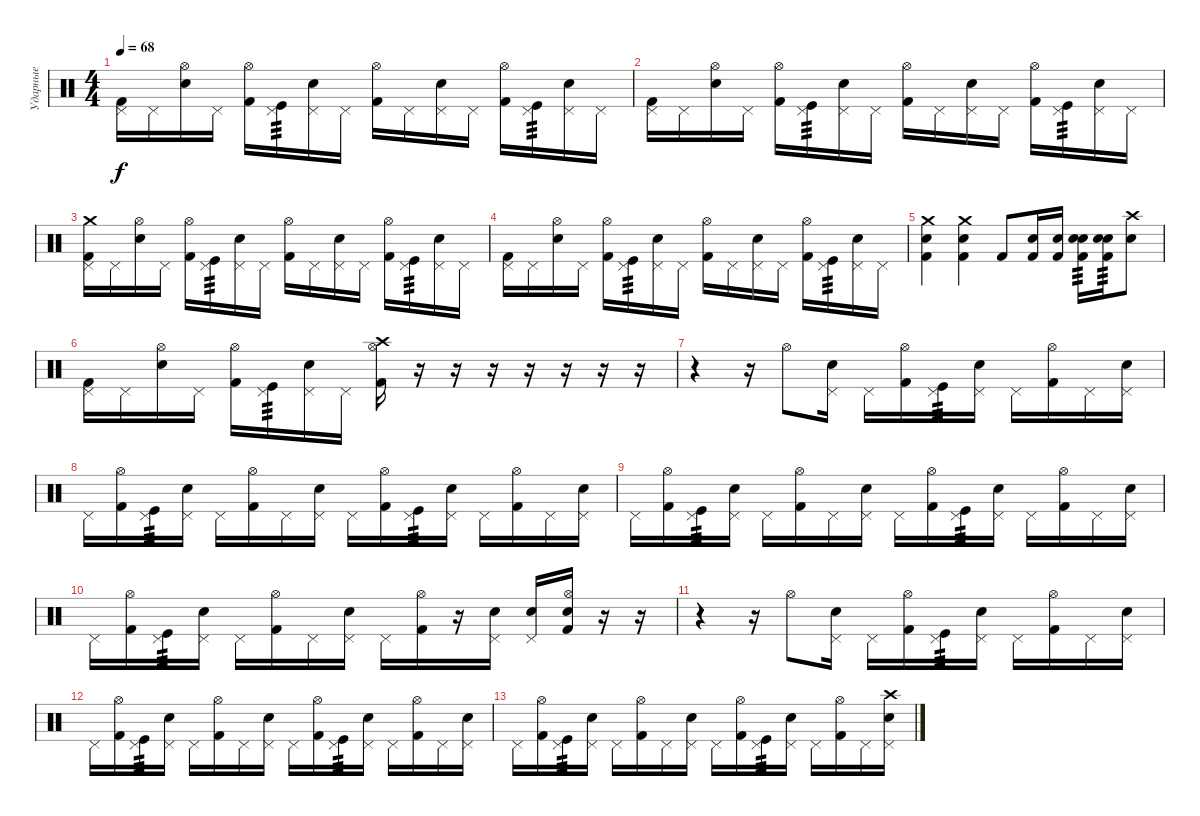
\track ("Ударные" "Ударные") {instrument percussion}
\staff {score}
\articulation defaults
\ts (4 4)
\tempo 68
\clef neutral
\ks c
("Pedal Hi-Hat (hit)" "Kick (hit) 2").16{dy f} "Pedal Hi-Hat (hit)".16 ("Hi-Hat (open)" "Snare (hit) 2").16 "Pedal Hi-Hat (hit)".16 ("Hi-Hat (open)" "Kick (hit) 2").16 ("Pedal Hi-Hat (hit)" "Kick (hit)").16{tp 3} ("Pedal Hi-Hat (hit)" "Snare (hit) 2").16 "Pedal Hi-Hat (hit)".16 ("Hi-Hat (open)" "Kick (hit) 2").16 "Pedal Hi-Hat (hit)".16 ("Pedal Hi-Hat (hit)" "Snare (hit) 2").16 "Pedal Hi-Hat (hit)".16 ("Hi-Hat (open)" "Kick (hit) 2").16 ("Pedal Hi-Hat (hit)" "Kick (hit)").16{tp 3} ("Pedal Hi-Hat (hit)" "Snare (hit) 2").16 "Pedal Hi-Hat (hit)".16 |
("Pedal Hi-Hat (hit)" "Kick (hit) 2").16 "Pedal Hi-Hat (hit)".16 ("Hi-Hat (open)" "Snare (hit) 2").16 "Pedal Hi-Hat (hit)".16 ("Hi-Hat (open)" "Kick (hit) 2").16 ("Pedal Hi-Hat (hit)" "Kick (hit)").16{tp 3} ("Pedal Hi-Hat (hit)" "Snare (hit) 2").16 "Pedal Hi-Hat (hit)".16 ("Hi-Hat (open)" "Kick (hit) 2").16 "Pedal Hi-Hat (hit)".16 ("Pedal Hi-Hat (hit)" "Snare (hit) 2").16 "Pedal Hi-Hat (hit)".16 ("Hi-Hat (open)" "Kick (hit) 2").16 ("Pedal Hi-Hat (hit)" "Kick (hit)").16{tp 3} ("Pedal Hi-Hat (hit)" "Snare (hit) 2").16 "Pedal Hi-Hat (hit)".16 |
("Crash medium (hit)" "Pedal Hi-Hat (hit)" "Kick (hit) 2").16 "Pedal Hi-Hat (hit)".16 ("Hi-Hat (open)" "Snare (hit) 2").16 "Pedal Hi-Hat (hit)".16 ("Hi-Hat (open)" "Kick (hit) 2").16 ("Pedal Hi-Hat (hit)" "Kick (hit)").16{tp 3} ("Pedal Hi-Hat (hit)" "Snare (hit) 2").16 "Pedal Hi-Hat (hit)".16 ("Hi-Hat (open)" "Kick (hit) 2").16 "Pedal Hi-Hat (hit)".16 ("Pedal Hi-Hat (hit)" "Snare (hit) 2").16 "Pedal Hi-Hat (hit)".16 ("Hi-Hat (open)" "Kick (hit) 2").16 ("Pedal Hi-Hat (hit)" "Kick (hit)").16{tp 3} ("Pedal Hi-Hat (hit)" "Snare (hit) 2").16 "Pedal Hi-Hat (hit)".16 |
("Pedal Hi-Hat (hit)" "Kick (hit) 2").16 "Pedal Hi-Hat (hit)".16 ("Hi-Hat (open)" "Snare (hit) 2").16 "Pedal Hi-Hat (hit)".16 ("Hi-Hat (open)" "Kick (hit) 2").16 ("Pedal Hi-Hat (hit)" "Kick (hit)").16{tp 3} ("Pedal Hi-Hat (hit)" "Snare (hit) 2").16 "Pedal Hi-Hat (hit)".16 ("Hi-Hat (open)" "Kick (hit) 2").16 "Pedal Hi-Hat (hit)".16 ("Pedal Hi-Hat (hit)" "Snare (hit) 2").16 "Pedal Hi-Hat (hit)".16 ("Hi-Hat (open)" "Kick (hit) 2").16 ("Pedal Hi-Hat (hit)" "Kick (hit)").16{tp 3} ("Pedal Hi-Hat (hit)" "Snare (hit) 2").16 "Pedal Hi-Hat (hit)".16 |
("Crash medium (hit)" "Snare (hit) 2" "Kick (hit) 2").4 ("Crash medium (hit)" "Snare (hit) 2" "Kick (hit) 2").4 "Kick (hit) 2".8 ("Snare (hit) 2" "Kick (hit) 2").16 ("Snare (hit) 2" "Kick (hit) 2").16 ("Electric Snare (hit)" "Snare (hit) 2" "Kick (hit) 2").16{tp 3} ("Electric Snare (hit)" "Snare (hit) 2" "Kick (hit) 2").16{tp 3} ("Crash high (hit)" "Snare (hit) 2").8 |
("Pedal Hi-Hat (hit)" "Kick (hit) 2").16 "Pedal Hi-Hat (hit)".16 ("Hi-Hat (open)" "Snare (hit) 2").16 "Pedal Hi-Hat (hit)".16 ("Hi-Hat (open)" "Kick (hit) 2").16 ("Pedal Hi-Hat (hit)" "Kick (hit)").16{tp 3} ("Pedal Hi-Hat (hit)" "Snare (hit) 2").16 "Pedal Hi-Hat (hit)".16 ("Crash high (hit)" "Hi-Hat (open)" "Kick (hit) 2").16 r.16 r.16 r.16 r.16 r.16 r.16 r.16 |
r.4 r.16 "Hi-Hat (open)".8 ("Pedal Hi-Hat (hit)" "Snare (hit) 2").16 "Pedal Hi-Hat (hit)".16 ("Hi-Hat (open)" "Kick (hit) 2").16 ("Pedal Hi-Hat (hit)" "Kick (hit)").16{tp 3} ("Pedal Hi-Hat (hit)" "Snare (hit) 2").16 "Pedal Hi-Hat (hit)".16 ("Hi-Hat (open)" "Kick (hit) 2").16 "Pedal Hi-Hat (hit)".16 ("Pedal Hi-Hat (hit)" "Snare (hit) 2").16 |
"Pedal Hi-Hat (hit)".16 ("Hi-Hat (open)" "Kick (hit) 2").16 ("Pedal Hi-Hat (hit)" "Kick (hit)").16{tp 3} ("Pedal Hi-Hat (hit)" "Snare (hit) 2").16 "Pedal Hi-Hat (hit)".16 ("Hi-Hat (open)" "Kick (hit) 2").16 "Pedal Hi-Hat (hit)".16 ("Pedal Hi-Hat (hit)" "Snare (hit) 2").16 "Pedal Hi-Hat (hit)".16 ("Hi-Hat (open)" "Kick (hit) 2").16 ("Pedal Hi-Hat (hit)" "Kick (hit)").16{tp 3} ("Pedal Hi-Hat (hit)" "Snare (hit) 2").16 "Pedal Hi-Hat (hit)".16 ("Hi-Hat (open)" "Kick (hit) 2").16 "Pedal Hi-Hat (hit)".16 ("Pedal Hi-Hat (hit)" "Snare (hit) 2").16 |
"Pedal Hi-Hat (hit)".16 ("Hi-Hat (open)" "Kick (hit) 2").16 ("Pedal Hi-Hat (hit)" "Kick (hit)").16{tp 3} ("Pedal Hi-Hat (hit)" "Snare (hit) 2").16 "Pedal Hi-Hat (hit)".16 ("Hi-Hat (open)" "Kick (hit) 2").16 "Pedal Hi-Hat (hit)".16 ("Pedal Hi-Hat (hit)" "Snare (hit) 2").16 "Pedal Hi-Hat (hit)".16 ("Hi-Hat (open)" "Kick (hit) 2").16 ("Pedal Hi-Hat (hit)" "Kick (hit)").16{tp 3} ("Pedal Hi-Hat (hit)" "Snare (hit) 2").16 "Pedal Hi-Hat (hit)".16 ("Hi-Hat (open)" "Kick (hit) 2").16 "Pedal Hi-Hat (hit)".16 ("Pedal Hi-Hat (hit)" "Snare (hit) 2").16 |
"Pedal Hi-Hat (hit)".16 ("Hi-Hat (open)" "Kick (hit) 2").16 ("Pedal Hi-Hat (hit)" "Kick (hit)").16{tp 3} ("Pedal Hi-Hat (hit)" "Snare (hit) 2").16 "Pedal Hi-Hat (hit)".16 ("Hi-Hat (open)" "Kick (hit) 2").16 "Pedal Hi-Hat (hit)".16 ("Pedal Hi-Hat (hit)" "Snare (hit) 2").16 "Pedal Hi-Hat (hit)".16 ("Hi-Hat (open)" "Kick (hit) 2").16 r.16 ("Pedal Hi-Hat (hit)" "Snare (hit) 2").16 ("Pedal Hi-Hat (hit)" "Snare (hit) 2").16 ("Hi-Hat (open)" "Snare (hit) 2" "Kick (hit) 2").16 r.16 r.16 |
r.4 r.16 "Hi-Hat (open)".8 ("Pedal Hi-Hat (hit)" "Snare (hit) 2").16 "Pedal Hi-Hat (hit)".16 ("Hi-Hat (open)" "Kick (hit) 2").16 ("Pedal Hi-Hat (hit)" "Kick (hit)").16{tp 3} ("Pedal Hi-Hat (hit)" "Snare (hit) 2").16 "Pedal Hi-Hat (hit)".16 ("Hi-Hat (open)" "Kick (hit) 2").16 "Pedal Hi-Hat (hit)".16 ("Pedal Hi-Hat (hit)" "Snare (hit) 2").16 |
"Pedal Hi-Hat (hit)".16 ("Hi-Hat (open)" "Kick (hit) 2").16 ("Pedal Hi-Hat (hit)" "Kick (hit)").16{tp 3} ("Pedal Hi-Hat (hit)" "Snare (hit) 2").16 "Pedal Hi-Hat (hit)".16 ("Hi-Hat (open)" "Kick (hit) 2").16 "Pedal Hi-Hat (hit)".16 ("Pedal Hi-Hat (hit)" "Snare (hit) 2").16 "Pedal Hi-Hat (hit)".16 ("Hi-Hat (open)" "Kick (hit) 2").16 ("Pedal Hi-Hat (hit)" "Kick (hit)").16{tp 3} ("Pedal Hi-Hat (hit)" "Snare (hit) 2").16 "Pedal Hi-Hat (hit)".16 ("Hi-Hat (open)" "Kick (hit) 2").16 "Pedal Hi-Hat (hit)".16 ("Pedal Hi-Hat (hit)" "Snare (hit) 2").16 |
"Pedal Hi-Hat (hit)".16 ("Hi-Hat (open)" "Kick (hit) 2").16 ("Pedal Hi-Hat (hit)" "Kick (hit)").16{tp 3} ("Pedal Hi-Hat (hit)" "Snare (hit) 2").16 "Pedal Hi-Hat (hit)".16 ("Hi-Hat (open)" "Kick (hit) 2").16 "Pedal Hi-Hat (hit)".16 ("Pedal Hi-Hat (hit)" "Snare (hit) 2").16 "Pedal Hi-Hat (hit)".16 ("Hi-Hat (open)" "Kick (hit) 2").16 ("Pedal Hi-Hat (hit)" "Kick (hit)").16{tp 3} ("Pedal Hi-Hat (hit)" "Snare (hit) 2").16 "Pedal Hi-Hat (hit)".16 ("Hi-Hat (open)" "Kick (hit) 2").16 "Pedal Hi-Hat (hit)".16 ("Crash high (hit)" "Pedal Hi-Hat (hit)" "Snare (hit) 2").16
